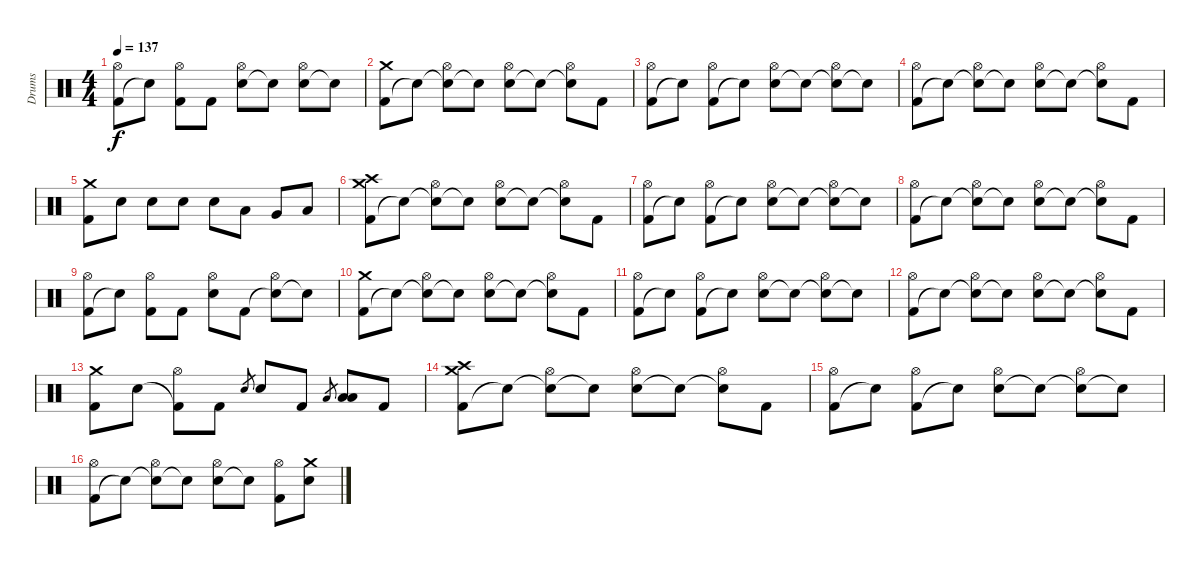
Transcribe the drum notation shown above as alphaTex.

\track ("Drums" "Drums") {instrument percussion}
\staff {score}
\articulation defaults
\ts (4 4)
\tempo 137
\clef neutral
\ks c
("Kick (hit) 2" "Hi-Hat (open)").8{dy f} "Snare (hit)"{t}.8 ("Kick (hit) 2" "Hi-Hat (open)").8 "Kick (hit) 2".8 ("Electric Snare (hit)" "Hi-Hat (open)").8 "Snare (hit)"{t}.8 ("Electric Snare (hit)" "Hi-Hat (open)").8 "Snare (hit)"{t}.8 |
("Kick (hit) 2" "Crash medium (hit)").8 "Snare (hit)"{t}.8 ("Electric Snare (hit)"{t} "Hi-Hat (open)").8 "Snare (hit)"{t}.8 ("Electric Snare (hit)" "Hi-Hat (open)").8 "Snare (hit)"{t}.8 ("Snare (hit)"{t} "Hi-Hat (open)").8 "Kick (hit) 2".8 |
("Kick (hit) 2" "Hi-Hat (open)").8 "Snare (hit)"{t}.8 ("Kick (hit) 2" "Hi-Hat (open)").8 "Snare (hit)"{t}.8 ("Electric Snare (hit)" "Hi-Hat (open)").8 "Snare (hit)"{t}.8 ("Snare (hit)"{t} "Hi-Hat (open)").8 "Snare (hit)"{t}.8 |
("Kick (hit) 2" "Hi-Hat (open)").8 "Snare (hit)"{t}.8 ("Electric Snare (hit)"{t} "Hi-Hat (open)").8 "Snare (hit)"{t}.8 ("Electric Snare (hit)" "Hi-Hat (open)").8 "Snare (hit)"{t}.8 ("Snare (hit)"{t} "Hi-Hat (open)").8 "Kick (hit) 2".8 |
("Kick (hit) 2" "Crash medium (hit)").8 "Electric Snare (hit)".8 "Electric Snare (hit)".8 "Electric Snare (hit)".8 "Electric Snare (hit)".8 "Low Tom (hit)".8 "Very Low Tom (hit)".8 "Low Floor Tom (hit)".8 |
("Kick (hit) 2" "Crash medium (hit)" "Crash high (hit)").8 "Snare (hit)"{t}.8 ("Electric Snare (hit)"{t} "Hi-Hat (open)").8 "Snare (hit)"{t}.8 ("Electric Snare (hit)" "Hi-Hat (open)").8 "Snare (hit)"{t}.8 ("Snare (hit)"{t} "Hi-Hat (open)").8 "Kick (hit) 2".8 |
("Kick (hit) 2" "Hi-Hat (open)").8 "Snare (hit)"{t}.8 ("Kick (hit) 2" "Hi-Hat (open)").8 "Snare (hit)"{t}.8 ("Electric Snare (hit)" "Hi-Hat (open)").8 "Snare (hit)"{t}.8 ("Snare (hit)"{t} "Hi-Hat (open)").8 "Snare (hit)"{t}.8 |
("Kick (hit) 2" "Hi-Hat (open)").8 "Snare (hit)"{t}.8 ("Electric Snare (hit)"{t} "Hi-Hat (open)").8 "Snare (hit)"{t}.8 ("Electric Snare (hit)" "Hi-Hat (open)").8 "Snare (hit)"{t}.8 ("Snare (hit)"{t} "Hi-Hat (open)").8 "Kick (hit) 2".8 |
("Kick (hit) 2" "Hi-Hat (open)").8 "Snare (hit)"{t}.8 ("Kick (hit) 2" "Hi-Hat (open)").8 "Kick (hit) 2".8 ("Electric Snare (hit)" "Hi-Hat (open)").8 "Kick (hit) 2".8 ("Snare (hit)"{t} "Hi-Hat (open)").8 "Snare (hit)"{t}.8 |
("Kick (hit) 2" "Crash medium (hit)").8 "Snare (hit)"{t}.8 ("Electric Snare (hit)"{t} "Hi-Hat (open)").8 "Snare (hit)"{t}.8 ("Electric Snare (hit)" "Hi-Hat (open)").8 "Snare (hit)"{t}.8 ("Snare (hit)"{t} "Hi-Hat (open)").8 "Kick (hit) 2".8 |
("Kick (hit) 2" "Hi-Hat (open)").8 "Snare (hit)"{t}.8 ("Kick (hit) 2" "Hi-Hat (open)").8 "Snare (hit)"{t}.8 ("Electric Snare (hit)" "Hi-Hat (open)").8 "Snare (hit)"{t}.8 ("Snare (hit)"{t} "Hi-Hat (open)").8 "Snare (hit)"{t}.8 |
("Kick (hit) 2" "Hi-Hat (open)").8 "Snare (hit)"{t}.8 ("Electric Snare (hit)"{t} "Hi-Hat (open)").8 "Snare (hit)"{t}.8 ("Electric Snare (hit)" "Hi-Hat (open)").8 "Snare (hit)"{t}.8 ("Snare (hit)"{t} "Hi-Hat (open)").8 "Kick (hit) 2".8 |
("Kick (hit) 2" "Crash medium (hit)").8 "Electric Snare (hit)".8 ("Kick (hit) 2"{t} "Hi-Hat (open)").8 "Kick (hit) 2".8 "Electric Snare (hit)".8{gr} "Electric Snare (hit)".8 "Kick (hit) 2".8 "Low Tom (hit)".8{gr} ("Low Tom (hit)" "Low Floor Tom (hit)").8 "Kick (hit) 2".8 |
("Kick (hit) 2" "Crash medium (hit)" "Crash high (hit)").8 "Snare (hit)"{t}.8 ("Electric Snare (hit)"{t} "Hi-Hat (open)").8 "Snare (hit)"{t}.8 ("Electric Snare (hit)" "Hi-Hat (open)").8 "Snare (hit)"{t}.8 ("Snare (hit)"{t} "Hi-Hat (open)").8 "Kick (hit) 2".8 |
("Kick (hit) 2" "Hi-Hat (open)").8 "Snare (hit)"{t}.8 ("Kick (hit) 2" "Hi-Hat (open)").8 "Snare (hit)"{t}.8 ("Electric Snare (hit)" "Hi-Hat (open)").8 "Snare (hit)"{t}.8 ("Snare (hit)"{t} "Hi-Hat (open)").8 "Snare (hit)"{t}.8 |
("Kick (hit) 2" "Hi-Hat (open)").8 "Snare (hit)"{t}.8 ("Electric Snare (hit)"{t} "Hi-Hat (open)").8 "Snare (hit)"{t}.8 ("Electric Snare (hit)" "Hi-Hat (open)").8 "Snare (hit)"{t}.8 ("Kick (hit) 2" "Hi-Hat (open)").8 ("Electric Snare (hit)" "Crash medium (hit)").8
